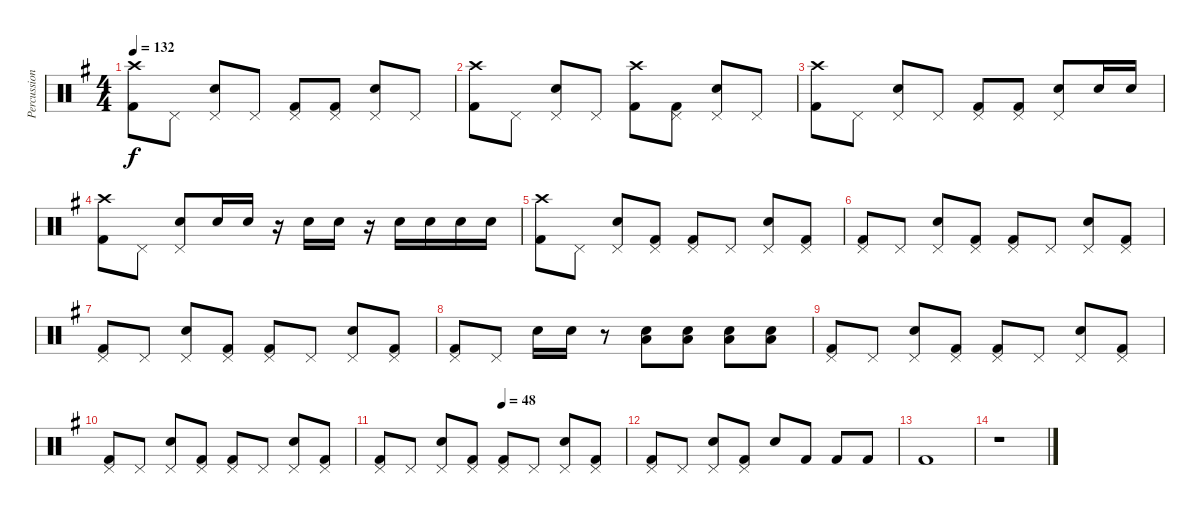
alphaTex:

\track ("Percussion" "Percussion") {instrument percussion}
\staff {score}
\articulation defaults
\ts (4 4)
\tempo 132
\clef neutral
\ks g
("Crash high (hit)" "Kick (hit) 2").8{dy f} "Pedal Hi-Hat (hit)".8 ("Pedal Hi-Hat (hit)" "Snare (hit) 2").8 "Pedal Hi-Hat (hit)".8 ("Pedal Hi-Hat (hit)" "Kick (hit) 2").8 ("Pedal Hi-Hat (hit)" "Kick (hit) 2").8 ("Pedal Hi-Hat (hit)" "Snare (hit) 2").8 "Pedal Hi-Hat (hit)".8 |
("Crash high (hit)" "Kick (hit) 2").8 "Pedal Hi-Hat (hit)".8 ("Pedal Hi-Hat (hit)" "Snare (hit) 2").8 "Pedal Hi-Hat (hit)".8 ("Crash high (hit)" "Kick (hit) 2").8 ("Pedal Hi-Hat (hit)" "Kick (hit) 2").8 ("Pedal Hi-Hat (hit)" "Snare (hit) 2").8 "Pedal Hi-Hat (hit)".8 |
("Crash high (hit)" "Kick (hit) 2").8 "Pedal Hi-Hat (hit)".8 ("Pedal Hi-Hat (hit)" "Snare (hit) 2").8 "Pedal Hi-Hat (hit)".8 ("Pedal Hi-Hat (hit)" "Kick (hit) 2").8 ("Pedal Hi-Hat (hit)" "Kick (hit) 2").8 ("Pedal Hi-Hat (hit)" "Snare (hit) 2").8 "Snare (hit) 2".16 "Snare (hit) 2".16 |
("Crash high (hit)" "Kick (hit) 2").8 "Pedal Hi-Hat (hit)".8 ("Pedal Hi-Hat (hit)" "Snare (hit) 2").8 "Electric Snare (hit)".16 "Electric Snare (hit)".16 r.16 "Electric Snare (hit)".16 "Electric Snare (hit)".16 r.16 "Electric Snare (hit)".16 "Electric Snare (hit)".16 "Electric Snare (hit)".16 "Electric Snare (hit)".16 |
("Crash high (hit)" "Kick (hit) 2").8 "Pedal Hi-Hat (hit)".8 ("Pedal Hi-Hat (hit)" "Snare (hit) 2").8 ("Pedal Hi-Hat (hit)" "Kick (hit) 2").8 ("Pedal Hi-Hat (hit)" "Kick (hit) 2").8 "Pedal Hi-Hat (hit)".8 ("Pedal Hi-Hat (hit)" "Snare (hit) 2").8 ("Pedal Hi-Hat (hit)" "Kick (hit) 2").8 |
("Pedal Hi-Hat (hit)" "Kick (hit) 2").8 "Pedal Hi-Hat (hit)".8 ("Pedal Hi-Hat (hit)" "Snare (hit) 2").8 ("Pedal Hi-Hat (hit)" "Kick (hit) 2").8 ("Pedal Hi-Hat (hit)" "Kick (hit) 2").8 "Pedal Hi-Hat (hit)".8 ("Pedal Hi-Hat (hit)" "Snare (hit) 2").8 ("Pedal Hi-Hat (hit)" "Kick (hit) 2").8 |
("Pedal Hi-Hat (hit)" "Kick (hit) 2").8 "Pedal Hi-Hat (hit)".8 ("Pedal Hi-Hat (hit)" "Snare (hit) 2").8 ("Pedal Hi-Hat (hit)" "Kick (hit) 2").8 ("Pedal Hi-Hat (hit)" "Kick (hit) 2").8 "Pedal Hi-Hat (hit)".8 ("Pedal Hi-Hat (hit)" "Snare (hit) 2").8 ("Pedal Hi-Hat (hit)" "Kick (hit) 2").8 |
("Pedal Hi-Hat (hit)" "Kick (hit) 2").8 "Pedal Hi-Hat (hit)".8 "Snare (hit) 2".16 "Snare (hit) 2".16 r.8 ("Electric Snare (hit)" "Low Tom (hit)").8 ("Electric Snare (hit)" "Low Tom (hit)").8 ("Electric Snare (hit)" "Low Tom (hit)").8 ("Electric Snare (hit)" "Low Tom (hit)").8 |
("Pedal Hi-Hat (hit)" "Kick (hit) 2").8 "Pedal Hi-Hat (hit)".8 ("Pedal Hi-Hat (hit)" "Snare (hit) 2").8 ("Pedal Hi-Hat (hit)" "Kick (hit) 2").8 ("Pedal Hi-Hat (hit)" "Kick (hit) 2").8 "Pedal Hi-Hat (hit)".8 ("Pedal Hi-Hat (hit)" "Snare (hit) 2").8 ("Pedal Hi-Hat (hit)" "Kick (hit) 2").8 |
("Pedal Hi-Hat (hit)" "Kick (hit) 2").8 "Pedal Hi-Hat (hit)".8 ("Pedal Hi-Hat (hit)" "Snare (hit) 2").8 ("Pedal Hi-Hat (hit)" "Kick (hit) 2").8 ("Pedal Hi-Hat (hit)" "Kick (hit) 2").8 "Pedal Hi-Hat (hit)".8 ("Pedal Hi-Hat (hit)" "Snare (hit) 2").8 ("Pedal Hi-Hat (hit)" "Kick (hit) 2").8 |
\tempo (48 0.5)
("Pedal Hi-Hat (hit)" "Kick (hit) 2").8 "Pedal Hi-Hat (hit)".8 ("Pedal Hi-Hat (hit)" "Snare (hit) 2").8 ("Pedal Hi-Hat (hit)" "Kick (hit) 2").8 ("Pedal Hi-Hat (hit)" "Kick (hit) 2").8 "Pedal Hi-Hat (hit)".8 ("Pedal Hi-Hat (hit)" "Snare (hit) 2").8 ("Pedal Hi-Hat (hit)" "Kick (hit) 2").8 |
("Pedal Hi-Hat (hit)" "Kick (hit) 2").8 "Pedal Hi-Hat (hit)".8 ("Pedal Hi-Hat (hit)" "Snare (hit) 2").8 ("Pedal Hi-Hat (hit)" "Kick (hit) 2").8 "Electric Snare (hit)".8 "Kick (hit) 2".8 "Kick (hit) 2".8 "Kick (hit) 2".8 |
"Kick (hit) 2".1 |
r.1
